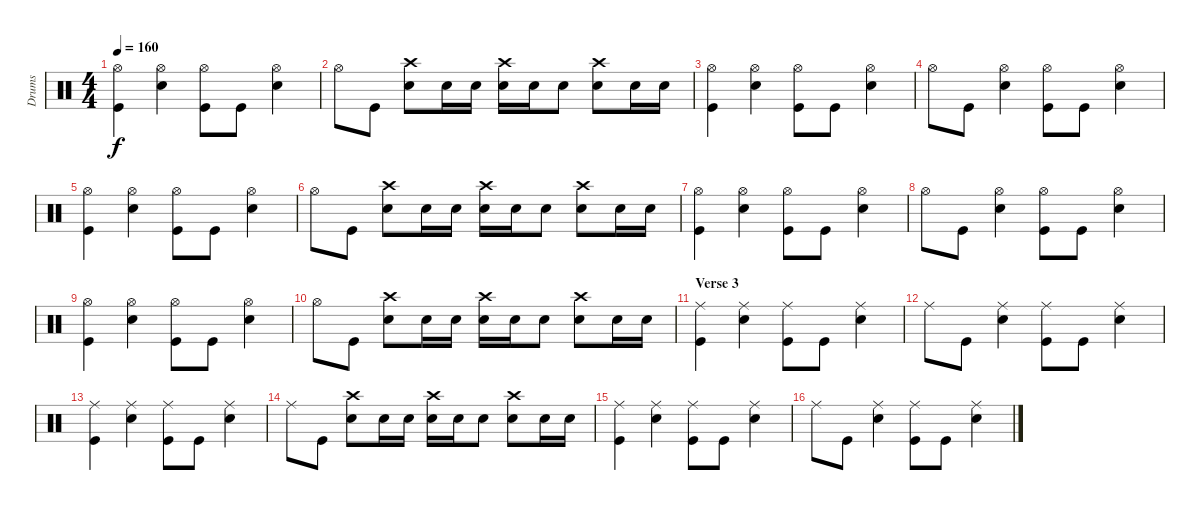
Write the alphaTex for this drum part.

\track ("Drums" "Drums") {instrument percussion}
\staff {score}
\articulation defaults
\ts (4 4)
\tempo 160
\clef neutral
\ks c
("Hi-Hat (open)" "Kick (hit)").4{dy f} ("Hi-Hat (open)" "Electric Snare (hit)").4 ("Hi-Hat (open)" "Kick (hit)").8 "Kick (hit)".8 ("Hi-Hat (open)" "Electric Snare (hit)").4 |
"Hi-Hat (open)".8 "Kick (hit)".8 ("Electric Snare (hit)" "Crash high (hit)").8 "Electric Snare (hit)".16 "Electric Snare (hit)".16 ("Electric Snare (hit)" "Crash high (hit)").16 "Electric Snare (hit)".16 "Electric Snare (hit)".8 ("Electric Snare (hit)" "Crash high (hit)").8 "Electric Snare (hit)".16 "Electric Snare (hit)".16 |
("Hi-Hat (open)" "Kick (hit)").4 ("Hi-Hat (open)" "Electric Snare (hit)").4 ("Hi-Hat (open)" "Kick (hit)").8 "Kick (hit)".8 ("Hi-Hat (open)" "Electric Snare (hit)").4 |
"Hi-Hat (open)".8 "Kick (hit)".8 ("Hi-Hat (open)" "Electric Snare (hit)").4 ("Hi-Hat (open)" "Kick (hit)").8 "Kick (hit)".8 ("Hi-Hat (open)" "Electric Snare (hit)").4 |
("Hi-Hat (open)" "Kick (hit)").4 ("Hi-Hat (open)" "Electric Snare (hit)").4 ("Hi-Hat (open)" "Kick (hit)").8 "Kick (hit)".8 ("Hi-Hat (open)" "Electric Snare (hit)").4 |
"Hi-Hat (open)".8 "Kick (hit)".8 ("Electric Snare (hit)" "Crash high (hit)").8 "Electric Snare (hit)".16 "Electric Snare (hit)".16 ("Electric Snare (hit)" "Crash high (hit)").16 "Electric Snare (hit)".16 "Electric Snare (hit)".8 ("Electric Snare (hit)" "Crash high (hit)").8 "Electric Snare (hit)".16 "Electric Snare (hit)".16 |
("Hi-Hat (open)" "Kick (hit)").4 ("Hi-Hat (open)" "Electric Snare (hit)").4 ("Hi-Hat (open)" "Kick (hit)").8 "Kick (hit)".8 ("Hi-Hat (open)" "Electric Snare (hit)").4 |
"Hi-Hat (open)".8 "Kick (hit)".8 ("Hi-Hat (open)" "Electric Snare (hit)").4 ("Hi-Hat (open)" "Kick (hit)").8 "Kick (hit)".8 ("Hi-Hat (open)" "Electric Snare (hit)").4 |
("Hi-Hat (open)" "Kick (hit)").4 ("Hi-Hat (open)" "Electric Snare (hit)").4 ("Hi-Hat (open)" "Kick (hit)").8 "Kick (hit)".8 ("Hi-Hat (open)" "Electric Snare (hit)").4 |
"Hi-Hat (open)".8 "Kick (hit)".8 ("Electric Snare (hit)" "Crash high (hit)").8 "Electric Snare (hit)".16 "Electric Snare (hit)".16 ("Electric Snare (hit)" "Crash high (hit)").16 "Electric Snare (hit)".16 "Electric Snare (hit)".8 ("Electric Snare (hit)" "Crash high (hit)").8 "Electric Snare (hit)".16 "Electric Snare (hit)".16 |
\section ("" "Verse 3")
("Ride (middle)" "Kick (hit)").4 ("Ride (middle)" "Electric Snare (hit)").4 ("Ride (middle)" "Kick (hit)").8 "Kick (hit)".8 ("Ride (middle)" "Electric Snare (hit)").4 |
"Ride (middle)".8 "Kick (hit)".8 ("Ride (middle)" "Electric Snare (hit)").4 ("Ride (middle)" "Kick (hit)").8 "Kick (hit)".8 ("Ride (middle)" "Electric Snare (hit)").4 |
("Ride (middle)" "Kick (hit)").4 ("Ride (middle)" "Electric Snare (hit)").4 ("Ride (middle)" "Kick (hit)").8 "Kick (hit)".8 ("Ride (middle)" "Electric Snare (hit)").4 |
"Ride (middle)".8 "Kick (hit)".8 ("Electric Snare (hit)" "Crash high (hit)").8 "Electric Snare (hit)".16 "Electric Snare (hit)".16 ("Electric Snare (hit)" "Crash high (hit)").16 "Electric Snare (hit)".16 "Electric Snare (hit)".8 ("Electric Snare (hit)" "Crash high (hit)").8 "Electric Snare (hit)".16 "Electric Snare (hit)".16 |
("Ride (middle)" "Kick (hit)").4 ("Ride (middle)" "Electric Snare (hit)").4 ("Ride (middle)" "Kick (hit)").8 "Kick (hit)".8 ("Ride (middle)" "Electric Snare (hit)").4 |
"Ride (middle)".8 "Kick (hit)".8 ("Ride (middle)" "Electric Snare (hit)").4 ("Ride (middle)" "Kick (hit)").8 "Kick (hit)".8 ("Ride (middle)" "Electric Snare (hit)").4
